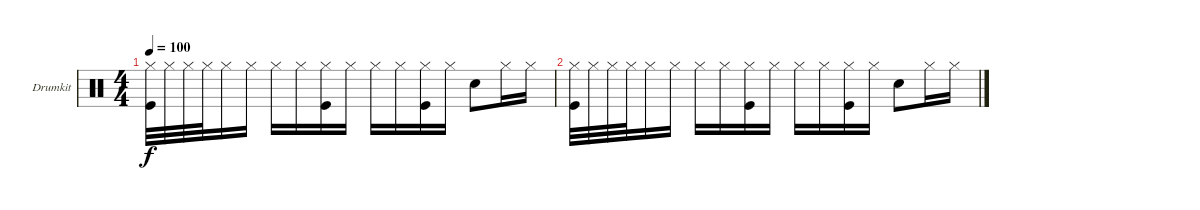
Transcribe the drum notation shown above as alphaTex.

\bracketExtendMode groupsimilarinstruments
\firstSystemTrackNameOrientation horizontal
\otherSystemsTrackNameOrientation horizontal
\track ("Drumkit" "Drumkit") {instrument percussion}
\staff {score}
\articulation defaults
\ts (4 4)
\tempo 100
\clef neutral
\ks c
("Hi-Hat (closed)" "Kick (hit)").32{dy f} "Hi-Hat (closed)".32 "Hi-Hat (closed)".32 "Hi-Hat (closed)".32 "Hi-Hat (closed)".16 "Hi-Hat (closed)".16 "Hi-Hat (closed)".16 "Hi-Hat (closed)".16 ("Hi-Hat (closed)" "Kick (hit)").16 "Hi-Hat (closed)".16 "Hi-Hat (closed)".16 "Hi-Hat (closed)".16 ("Hi-Hat (closed)" "Kick (hit)").16 "Hi-Hat (closed)".16 "Snare (hit) 2".8 "Hi-Hat (closed)".16 "Hi-Hat (closed)".16 |
("Hi-Hat (closed)" "Kick (hit)").32 "Hi-Hat (closed)".32 "Hi-Hat (closed)".32 "Hi-Hat (closed)".32 "Hi-Hat (closed)".16 "Hi-Hat (closed)".16 "Hi-Hat (closed)".16 "Hi-Hat (closed)".16 ("Hi-Hat (closed)" "Kick (hit)").16 "Hi-Hat (closed)".16 "Hi-Hat (closed)".16 "Hi-Hat (closed)".16 ("Hi-Hat (closed)" "Kick (hit)").16 "Hi-Hat (closed)".16 "Snare (hit) 2".8 "Hi-Hat (closed)".16 "Hi-Hat (closed)".16
